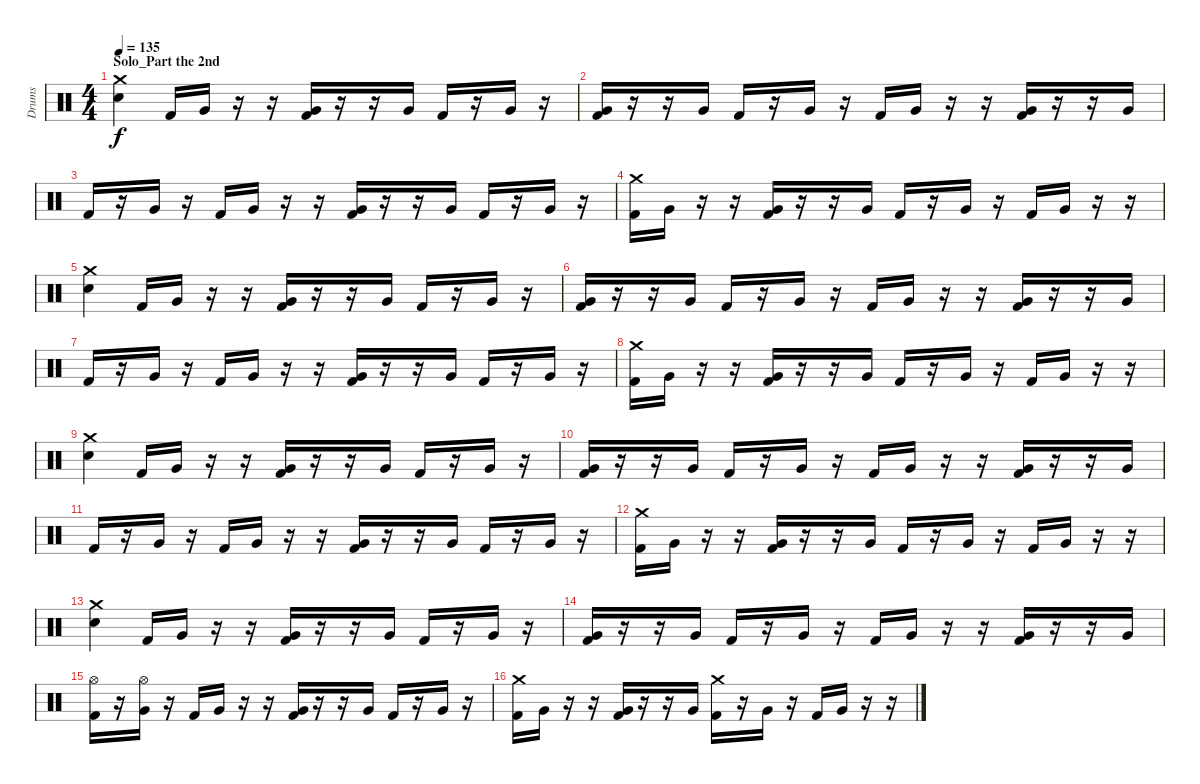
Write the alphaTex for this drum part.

\track ("Drums" "Drums") {instrument percussion}
\staff {score}
\articulation defaults
\ts (4 4)
\section ("" "Solo_Part the 2nd")
\tempo 135
\clef neutral
\ks c
("Crash medium (hit)" "Electric Snare (hit)").4{dy f} "Kick (hit) 2".16 "Very Low Tom (hit)".16 r.16 r.16 ("Very Low Tom (hit)" "Kick (hit) 2").16 r.16 r.16 "Very Low Tom (hit)".16 "Kick (hit) 2".16 r.16 "Very Low Tom (hit)".16 r.16 |
("Very Low Tom (hit)" "Kick (hit) 2").16 r.16 r.16 "Very Low Tom (hit)".16 "Kick (hit) 2".16 r.16 "Very Low Tom (hit)".16 r.16 "Kick (hit) 2".16 "Very Low Tom (hit)".16 r.16 r.16 ("Very Low Tom (hit)" "Kick (hit) 2").16 r.16 r.16 "Very Low Tom (hit)".16 |
"Kick (hit) 2".16 r.16 "Very Low Tom (hit)".16 r.16 "Kick (hit) 2".16 "Very Low Tom (hit)".16 r.16 r.16 ("Very Low Tom (hit)" "Kick (hit) 2").16 r.16 r.16 "Very Low Tom (hit)".16 "Kick (hit) 2".16 r.16 "Very Low Tom (hit)".16 r.16 |
("Crash medium (hit)" "Kick (hit) 2").16 "Very Low Tom (hit)".16 r.16 r.16 ("Very Low Tom (hit)" "Kick (hit) 2").16 r.16 r.16 "Very Low Tom (hit)".16 "Kick (hit) 2".16 r.16 "Very Low Tom (hit)".16 r.16 "Kick (hit) 2".16 "Very Low Tom (hit)".16 r.16 r.16 |
("Crash medium (hit)" "Electric Snare (hit)").4 "Kick (hit) 2".16 "Very Low Tom (hit)".16 r.16 r.16 ("Very Low Tom (hit)" "Kick (hit) 2").16 r.16 r.16 "Very Low Tom (hit)".16 "Kick (hit) 2".16 r.16 "Very Low Tom (hit)".16 r.16 |
("Very Low Tom (hit)" "Kick (hit) 2").16 r.16 r.16 "Very Low Tom (hit)".16 "Kick (hit) 2".16 r.16 "Very Low Tom (hit)".16 r.16 "Kick (hit) 2".16 "Very Low Tom (hit)".16 r.16 r.16 ("Very Low Tom (hit)" "Kick (hit) 2").16 r.16 r.16 "Very Low Tom (hit)".16 |
"Kick (hit) 2".16 r.16 "Very Low Tom (hit)".16 r.16 "Kick (hit) 2".16 "Very Low Tom (hit)".16 r.16 r.16 ("Very Low Tom (hit)" "Kick (hit) 2").16 r.16 r.16 "Very Low Tom (hit)".16 "Kick (hit) 2".16 r.16 "Very Low Tom (hit)".16 r.16 |
("Crash medium (hit)" "Kick (hit) 2").16 "Very Low Tom (hit)".16 r.16 r.16 ("Very Low Tom (hit)" "Kick (hit) 2").16 r.16 r.16 "Very Low Tom (hit)".16 "Kick (hit) 2".16 r.16 "Very Low Tom (hit)".16 r.16 "Kick (hit) 2".16 "Very Low Tom (hit)".16 r.16 r.16 |
("Crash medium (hit)" "Electric Snare (hit)").4 "Kick (hit) 2".16 "Very Low Tom (hit)".16 r.16 r.16 ("Very Low Tom (hit)" "Kick (hit) 2").16 r.16 r.16 "Very Low Tom (hit)".16 "Kick (hit) 2".16 r.16 "Very Low Tom (hit)".16 r.16 |
("Very Low Tom (hit)" "Kick (hit) 2").16 r.16 r.16 "Very Low Tom (hit)".16 "Kick (hit) 2".16 r.16 "Very Low Tom (hit)".16 r.16 "Kick (hit) 2".16 "Very Low Tom (hit)".16 r.16 r.16 ("Very Low Tom (hit)" "Kick (hit) 2").16 r.16 r.16 "Very Low Tom (hit)".16 |
"Kick (hit) 2".16 r.16 "Very Low Tom (hit)".16 r.16 "Kick (hit) 2".16 "Very Low Tom (hit)".16 r.16 r.16 ("Very Low Tom (hit)" "Kick (hit) 2").16 r.16 r.16 "Very Low Tom (hit)".16 "Kick (hit) 2".16 r.16 "Very Low Tom (hit)".16 r.16 |
("Crash medium (hit)" "Kick (hit) 2").16 "Very Low Tom (hit)".16 r.16 r.16 ("Very Low Tom (hit)" "Kick (hit) 2").16 r.16 r.16 "Very Low Tom (hit)".16 "Kick (hit) 2".16 r.16 "Very Low Tom (hit)".16 r.16 "Kick (hit) 2".16 "Very Low Tom (hit)".16 r.16 r.16 |
("Crash medium (hit)" "Electric Snare (hit)").4 "Kick (hit) 2".16 "Very Low Tom (hit)".16 r.16 r.16 ("Very Low Tom (hit)" "Kick (hit) 2").16 r.16 r.16 "Very Low Tom (hit)".16 "Kick (hit) 2".16 r.16 "Very Low Tom (hit)".16 r.16 |
("Very Low Tom (hit)" "Kick (hit) 2").16 r.16 r.16 "Very Low Tom (hit)".16 "Kick (hit) 2".16 r.16 "Very Low Tom (hit)".16 r.16 "Kick (hit) 2".16 "Very Low Tom (hit)".16 r.16 r.16 ("Very Low Tom (hit)" "Kick (hit) 2").16 r.16 r.16 "Very Low Tom (hit)".16 |
("Hi-Hat (open)" "Kick (hit) 2").16 r.16 ("Hi-Hat (open)" "Very Low Tom (hit)").16 r.16 "Kick (hit) 2".16 "Very Low Tom (hit)".16 r.16 r.16 ("Very Low Tom (hit)" "Kick (hit) 2").16 r.16 r.16 "Very Low Tom (hit)".16 "Kick (hit) 2".16 r.16 "Very Low Tom (hit)".16 r.16 |
("Crash medium (hit)" "Kick (hit) 2").16 "Very Low Tom (hit)".16 r.16 r.16 ("Very Low Tom (hit)" "Kick (hit) 2").16 r.16 r.16 "Very Low Tom (hit)".16 ("Crash medium (hit)" "Kick (hit) 2").16 r.16 "Very Low Tom (hit)".16 r.16 "Kick (hit) 2".16 "Very Low Tom (hit)".16 r.16 r.16
